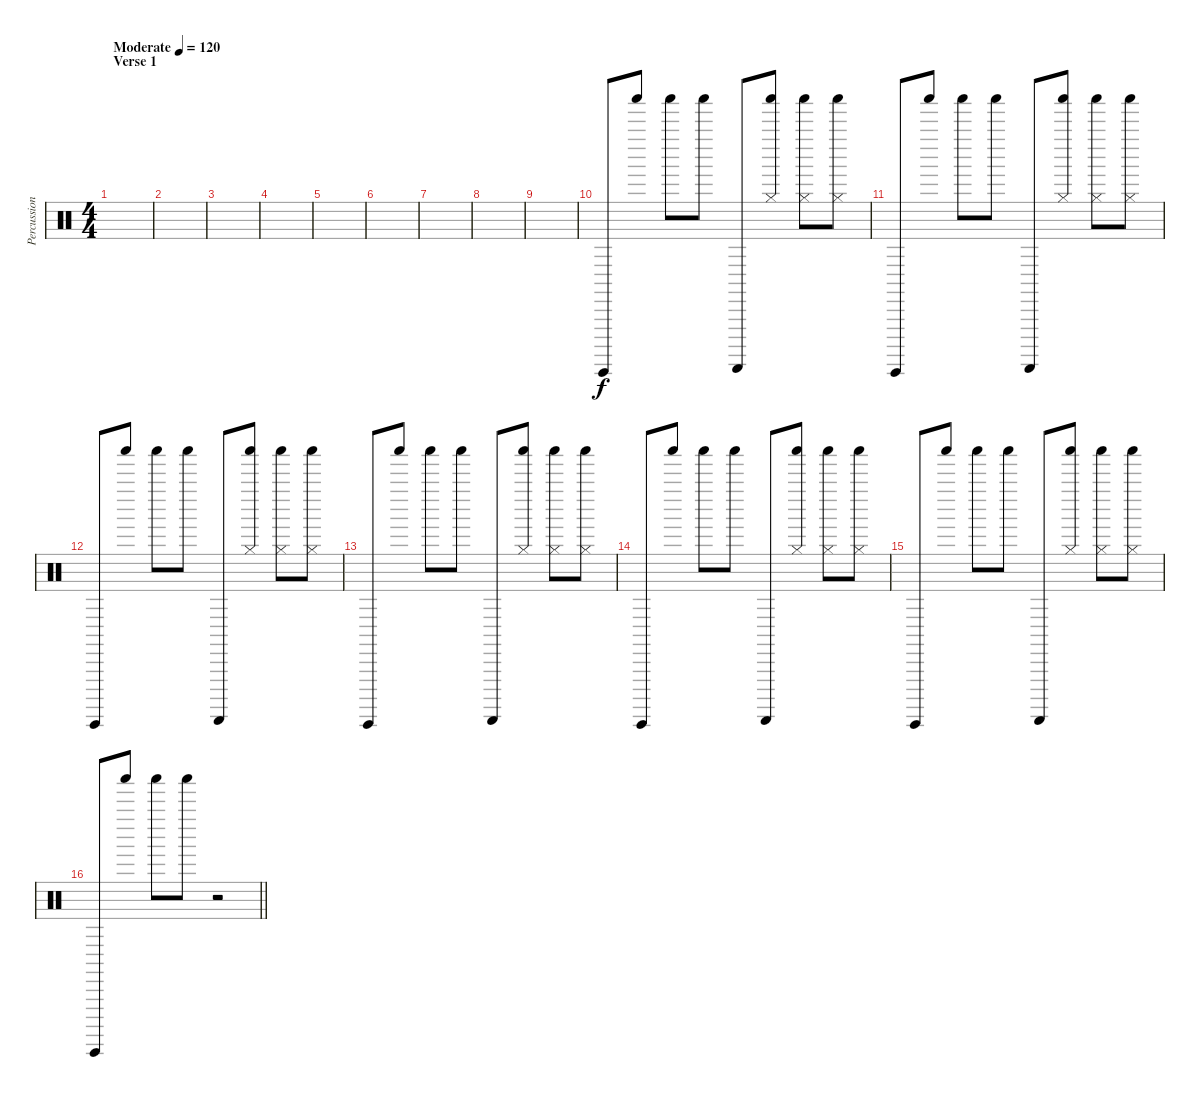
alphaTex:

\track ("Percussion" "Percussion") {instrument percussion}
\staff {score}
\articulation defaults
\ts (4 4)
\section ("" "Verse 1")
\tempo (120 "Moderate")
\clef neutral
\ks c
|
|
|
|
|
|
|
|
|
"Guiro (hit)".8 "Shaker (hit)".8 "Shaker (hit)".8 "Shaker (hit)".8 "Guiro (scrap-return)".8 ("Shaker (hit)" "Hi-Hat (closed)").8 ("Shaker (hit)" "Hi-Hat (closed)").8 ("Shaker (hit)" "Hi-Hat (closed)").8 |
"Guiro (hit)".8 "Shaker (hit)".8 "Shaker (hit)".8 "Shaker (hit)".8 "Guiro (scrap-return)".8 ("Shaker (hit)" "Hi-Hat (closed)").8 ("Shaker (hit)" "Hi-Hat (closed)").8 ("Shaker (hit)" "Hi-Hat (closed)").8 |
"Guiro (hit)".8 "Shaker (hit)".8 "Shaker (hit)".8 "Shaker (hit)".8 "Guiro (scrap-return)".8 ("Shaker (hit)" "Hi-Hat (closed)").8 ("Shaker (hit)" "Hi-Hat (closed)").8 ("Shaker (hit)" "Hi-Hat (closed)").8 |
"Guiro (hit)".8 "Shaker (hit)".8 "Shaker (hit)".8 "Shaker (hit)".8 "Guiro (scrap-return)".8 ("Shaker (hit)" "Hi-Hat (closed)").8 ("Shaker (hit)" "Hi-Hat (closed)").8 ("Shaker (hit)" "Hi-Hat (closed)").8 |
"Guiro (hit)".8 "Shaker (hit)".8 "Shaker (hit)".8 "Shaker (hit)".8 "Guiro (scrap-return)".8 ("Shaker (hit)" "Hi-Hat (closed)").8 ("Shaker (hit)" "Hi-Hat (closed)").8 ("Shaker (hit)" "Hi-Hat (closed)").8 |
"Guiro (hit)".8 "Shaker (hit)".8 "Shaker (hit)".8 "Shaker (hit)".8 "Guiro (scrap-return)".8 ("Shaker (hit)" "Hi-Hat (closed)").8 ("Shaker (hit)" "Hi-Hat (closed)").8 ("Shaker (hit)" "Hi-Hat (closed)").8 |
\barLineRight lightlight "Guiro (hit)".8 "Shaker (hit)".8 "Shaker (hit)".8 "Shaker (hit)".8
r.2
